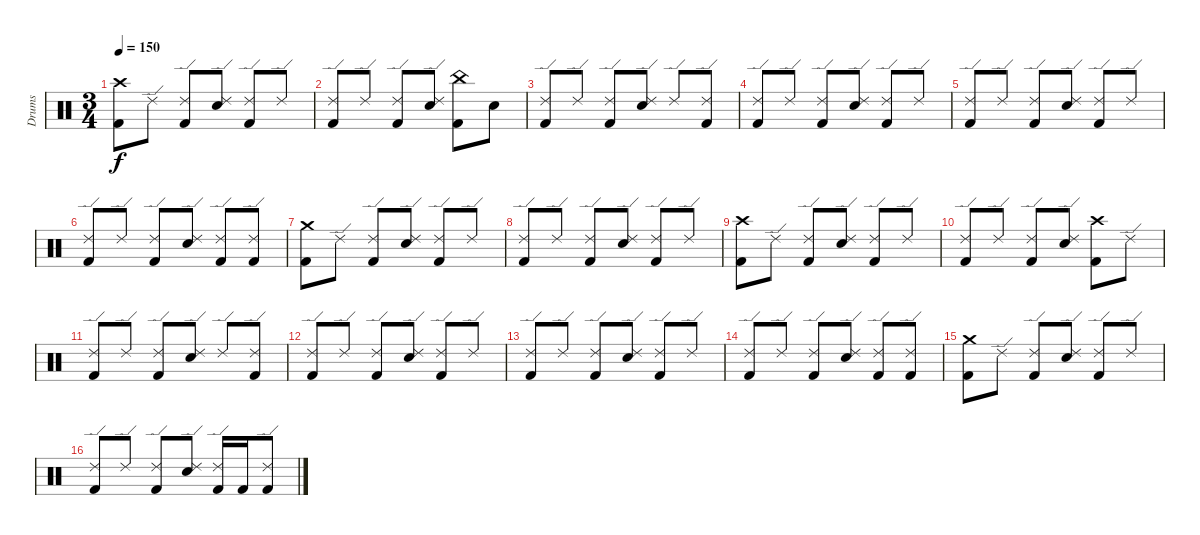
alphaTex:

\track ("Drums" "Drums") {instrument percussion}
\staff {score}
\articulation defaults
\ts (3 4)
\tempo 150
\clef neutral
\ks c
("Crash high (hit)" "Kick (hit) 2").8{dy f} "Ride (edge) 2".8 ("Ride (edge) 2" "Kick (hit) 2").8 ("Ride (edge) 2" "Snare (hit) 2").8 ("Ride (edge) 2" "Kick (hit) 2").8 "Ride (edge) 2".8 |
("Ride (edge) 2" "Kick (hit) 2").8 "Ride (edge) 2".8 ("Ride (edge) 2" "Kick (hit) 2").8 ("Ride (edge) 2" "Snare (hit) 2").8 ("China (hit)" "Kick (hit) 2").8 "Snare (hit) 2".8 |
("Ride (edge) 2" "Kick (hit) 2").8 "Ride (edge) 2".8 ("Ride (edge) 2" "Kick (hit) 2").8 ("Ride (edge) 2" "Snare (hit) 2").8 "Ride (edge) 2".8 ("Ride (edge) 2" "Kick (hit) 2").8 |
("Ride (edge) 2" "Kick (hit) 2").8 "Ride (edge) 2".8 ("Ride (edge) 2" "Kick (hit) 2").8 ("Ride (edge) 2" "Snare (hit) 2").8 ("Ride (edge) 2" "Kick (hit) 2").8 "Ride (edge) 2".8 |
("Ride (edge) 2" "Kick (hit) 2").8 "Ride (edge) 2".8 ("Ride (edge) 2" "Kick (hit) 2").8 ("Ride (edge) 2" "Snare (hit) 2").8 ("Ride (edge) 2" "Kick (hit) 2").8 "Ride (edge) 2".8 |
("Ride (edge) 2" "Kick (hit) 2").8 "Ride (edge) 2".8 ("Ride (edge) 2" "Kick (hit) 2").8 ("Ride (edge) 2" "Snare (hit) 2").8 ("Ride (edge) 2" "Kick (hit) 2").8 ("Ride (edge) 2" "Kick (hit) 2").8 |
("Crash medium (hit)" "Kick (hit) 2").8 "Ride (edge) 2".8 ("Ride (edge) 2" "Kick (hit) 2").8 ("Ride (edge) 2" "Snare (hit) 2").8 ("Ride (edge) 2" "Kick (hit) 2").8 "Ride (edge) 2".8 |
("Ride (edge) 2" "Kick (hit) 2").8 "Ride (edge) 2".8 ("Ride (edge) 2" "Kick (hit) 2").8 ("Ride (edge) 2" "Snare (hit) 2").8 ("Ride (edge) 2" "Kick (hit) 2").8 "Ride (edge) 2".8 |
("Crash high (hit)" "Kick (hit) 2").8 "Ride (edge) 2".8 ("Ride (edge) 2" "Kick (hit) 2").8 ("Ride (edge) 2" "Snare (hit) 2").8 ("Ride (edge) 2" "Kick (hit) 2").8 "Ride (edge) 2".8 |
("Ride (edge) 2" "Kick (hit) 2").8 "Ride (edge) 2".8 ("Ride (edge) 2" "Kick (hit) 2").8 ("Ride (edge) 2" "Snare (hit) 2").8 ("Crash high (hit)" "Kick (hit) 2").8 "Ride (edge) 2".8 |
("Ride (edge) 2" "Kick (hit) 2").8 "Ride (edge) 2".8 ("Ride (edge) 2" "Kick (hit) 2").8 ("Ride (edge) 2" "Snare (hit) 2").8 "Ride (edge) 2".8 ("Ride (edge) 2" "Kick (hit) 2").8 |
("Ride (edge) 2" "Kick (hit) 2").8 "Ride (edge) 2".8 ("Ride (edge) 2" "Kick (hit) 2").8 ("Ride (edge) 2" "Snare (hit) 2").8 ("Ride (edge) 2" "Kick (hit) 2").8 "Ride (edge) 2".8 |
("Ride (edge) 2" "Kick (hit) 2").8 "Ride (edge) 2".8 ("Ride (edge) 2" "Kick (hit) 2").8 ("Ride (edge) 2" "Snare (hit) 2").8 ("Ride (edge) 2" "Kick (hit) 2").8 "Ride (edge) 2".8 |
("Ride (edge) 2" "Kick (hit) 2").8 "Ride (edge) 2".8 ("Ride (edge) 2" "Kick (hit) 2").8 ("Ride (edge) 2" "Snare (hit) 2").8 ("Ride (edge) 2" "Kick (hit) 2").8 ("Ride (edge) 2" "Kick (hit) 2").8 |
("Crash medium (hit)" "Kick (hit) 2").8 "Ride (edge) 2".8 ("Ride (edge) 2" "Kick (hit) 2").8 ("Ride (edge) 2" "Snare (hit) 2").8 ("Ride (edge) 2" "Kick (hit) 2").8 "Ride (edge) 2".8 |
("Ride (edge) 2" "Kick (hit) 2").8 "Ride (edge) 2".8 ("Ride (edge) 2" "Kick (hit) 2").8 ("Ride (edge) 2" "Snare (hit) 2").8 ("Ride (edge) 2" "Kick (hit) 2").16 "Kick (hit) 2".16 ("Ride (edge) 2" "Kick (hit) 2").8
